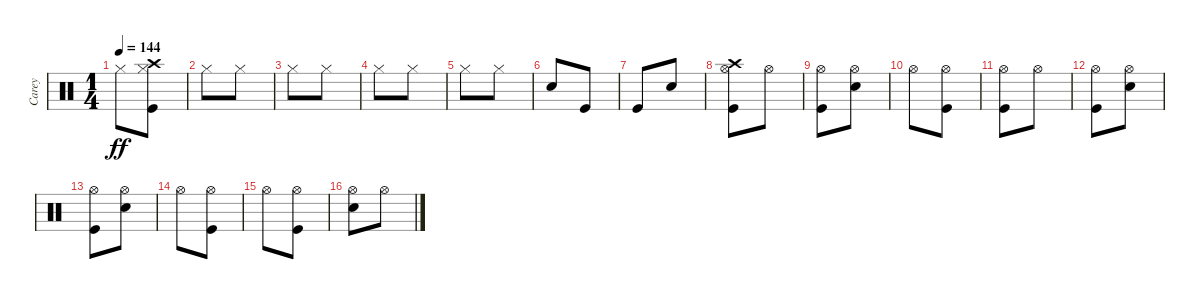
\track ("Carey" "Carey") {instrument percussion}
\staff {score}
\articulation defaults
\ts (1 4)
\tempo 144
\clef neutral
\ks c "Hi-Hat (closed)".8{dy ff}
("Kick (hit)" "Hi-Hat (closed)" "Crash high (hit)").8 |
"Hi-Hat (closed)".8 "Hi-Hat (closed)".8 |
"Hi-Hat (closed)".8 "Hi-Hat (closed)".8 |
"Hi-Hat (closed)".8 "Hi-Hat (closed)".8 |
"Hi-Hat (closed)".8 "Hi-Hat (closed)".8 |
"Snare (hit) 2".8 "Kick (hit)".8 |
"Kick (hit)".8 "Snare (hit) 2".8 |
("Kick (hit)" "Hi-Hat (open)" "Crash high (hit)").8 "Hi-Hat (open)".8 |
("Kick (hit)" "Hi-Hat (open)").8 ("Snare (hit) 2" "Hi-Hat (open)").8 |
"Hi-Hat (open)".8 ("Kick (hit)" "Hi-Hat (open)").8 |
("Kick (hit)" "Hi-Hat (open)").8 "Hi-Hat (open)".8 |
("Kick (hit)" "Hi-Hat (open)").8 ("Snare (hit) 2" "Hi-Hat (open)").8 |
("Kick (hit)" "Hi-Hat (open)").8 ("Snare (hit) 2" "Hi-Hat (open)").8 |
"Hi-Hat (open)".8 ("Kick (hit)" "Hi-Hat (open)").8 |
"Hi-Hat (open)".8 ("Kick (hit)" "Hi-Hat (open)").8 |
("Snare (hit) 2" "Hi-Hat (open)").8 "Hi-Hat (open)".8
